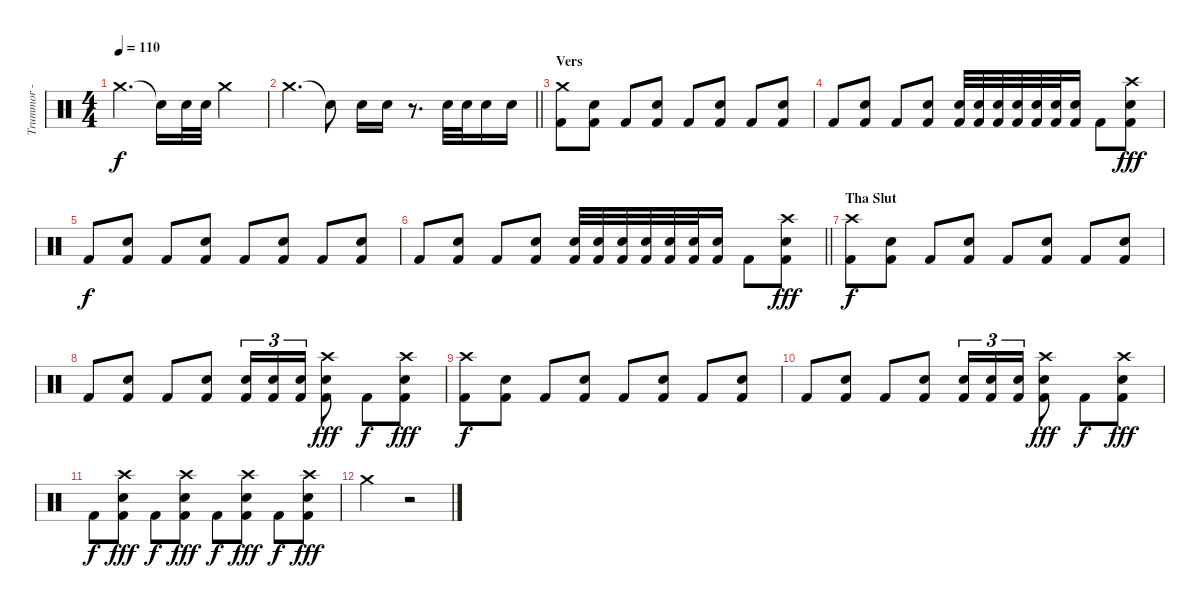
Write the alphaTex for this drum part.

\track ("Trummor - Larzon" "Trummor - ") {instrument percussion}
\staff {score}
\articulation defaults
\ts (4 4)
\tempo 110
\clef neutral
\ks c "Crash medium (hit)".4{d dy f} "Snare (hit)"{t}.16 "Snare (hit) 2".32 "Snare (hit) 2".32 "Crash medium (hit)".2
|
\barLineRight lightlight "Crash medium (hit)".4{d} "Snare (hit)"{t}.8 "Snare (hit) 2".16 "Snare (hit) 2".16
r.8{d} "Snare (hit) 2".32 "Snare (hit) 2".32 "Snare (hit) 2".16 "Snare (hit) 2".16 |
\section ("" "Vers")
("Kick (hit) 2" "Crash medium (hit)").8 ("Kick (hit) 2" "Snare (hit) 2").8 "Kick (hit) 2".8 ("Kick (hit) 2" "Snare (hit) 2").8 "Kick (hit) 2".8 ("Kick (hit) 2" "Snare (hit) 2").8 "Kick (hit) 2".8 ("Kick (hit) 2" "Snare (hit) 2").8 |
"Kick (hit) 2".8 ("Kick (hit) 2" "Snare (hit) 2").8 "Kick (hit) 2".8 ("Kick (hit) 2" "Snare (hit) 2").8 ("Kick (hit) 2" "Snare (hit) 2").32 ("Kick (hit) 2" "Snare (hit) 2").32 ("Kick (hit) 2" "Snare (hit) 2").32 ("Kick (hit) 2" "Snare (hit) 2").32 ("Kick (hit) 2" "Snare (hit) 2").32 ("Kick (hit) 2" "Snare (hit) 2").32 ("Kick (hit) 2" "Snare (hit) 2").16 "Kick (hit) 2".8 ("Kick (hit) 2" "Crash high (hit)" "Snare (hit) 2").8{dy fff} |
"Kick (hit) 2".8{dy f} ("Kick (hit) 2" "Snare (hit) 2").8 "Kick (hit) 2".8 ("Kick (hit) 2" "Snare (hit) 2").8 "Kick (hit) 2".8 ("Kick (hit) 2" "Snare (hit) 2").8 "Kick (hit) 2".8 ("Kick (hit) 2" "Snare (hit) 2").8 |
\barLineRight lightlight "Kick (hit) 2".8
("Kick (hit) 2" "Snare (hit) 2").8 "Kick (hit) 2".8 ("Kick (hit) 2" "Snare (hit) 2").8 ("Kick (hit) 2" "Snare (hit) 2").32 ("Kick (hit) 2" "Snare (hit) 2").32 ("Kick (hit) 2" "Snare (hit) 2").32 ("Kick (hit) 2" "Snare (hit) 2").32 ("Kick (hit) 2" "Snare (hit) 2").32 ("Kick (hit) 2" "Snare (hit) 2").32 ("Kick (hit) 2" "Snare (hit) 2").16 "Kick (hit) 2".8 ("Kick (hit) 2" "Crash high (hit)" "Snare (hit) 2").8{dy fff} |
\section ("" "Tha Slut")
("Kick (hit) 2" "Crash high (hit)").8{dy f} ("Kick (hit) 2" "Snare (hit) 2").8 "Kick (hit) 2".8 ("Kick (hit) 2" "Snare (hit) 2").8 "Kick (hit) 2".8 ("Kick (hit) 2" "Snare (hit) 2").8 "Kick (hit) 2".8 ("Kick (hit) 2" "Snare (hit) 2").8 |
"Kick (hit) 2".8 ("Kick (hit) 2" "Snare (hit) 2").8 "Kick (hit) 2".8 ("Kick (hit) 2" "Snare (hit) 2").8 ("Kick (hit) 2" "Snare (hit) 2").16{tu (3 2)} ("Kick (hit) 2" "Snare (hit) 2").16{tu (3 2)} ("Kick (hit) 2" "Snare (hit) 2").16{tu (3 2)} ("Kick (hit) 2" "Crash high (hit)" "Snare (hit) 2").8{dy fff} "Kick (hit) 2".8{dy f} ("Kick (hit) 2" "Crash high (hit)" "Snare (hit) 2").8{dy fff} |
("Kick (hit) 2" "Crash high (hit)").8{dy f} ("Kick (hit) 2" "Snare (hit) 2").8 "Kick (hit) 2".8 ("Kick (hit) 2" "Snare (hit) 2").8 "Kick (hit) 2".8 ("Kick (hit) 2" "Snare (hit) 2").8 "Kick (hit) 2".8 ("Kick (hit) 2" "Snare (hit) 2").8 |
"Kick (hit) 2".8 ("Kick (hit) 2" "Snare (hit) 2").8 "Kick (hit) 2".8 ("Kick (hit) 2" "Snare (hit) 2").8 ("Kick (hit) 2" "Snare (hit) 2").16{tu (3 2)} ("Kick (hit) 2" "Snare (hit) 2").16{tu (3 2)} ("Kick (hit) 2" "Snare (hit) 2").16{tu (3 2)} ("Kick (hit) 2" "Crash high (hit)" "Snare (hit) 2").8{dy fff} "Kick (hit) 2".8{dy f} ("Kick (hit) 2" "Crash high (hit)" "Snare (hit) 2").8{dy fff} |
"Kick (hit) 2".8{dy f} ("Kick (hit) 2" "Snare (hit) 2" "Crash high (hit)").8{dy fff} "Kick (hit) 2".8{dy f} ("Kick (hit) 2" "Snare (hit) 2" "Crash high (hit)").8{dy fff} "Kick (hit) 2".8{dy f} ("Kick (hit) 2" "Snare (hit) 2" "Crash high (hit)").8{dy fff} "Kick (hit) 2".8{dy f} ("Kick (hit) 2" "Snare (hit) 2" "Crash high (hit)").8{dy fff} |
"Crash medium (hit)".2 r.2
